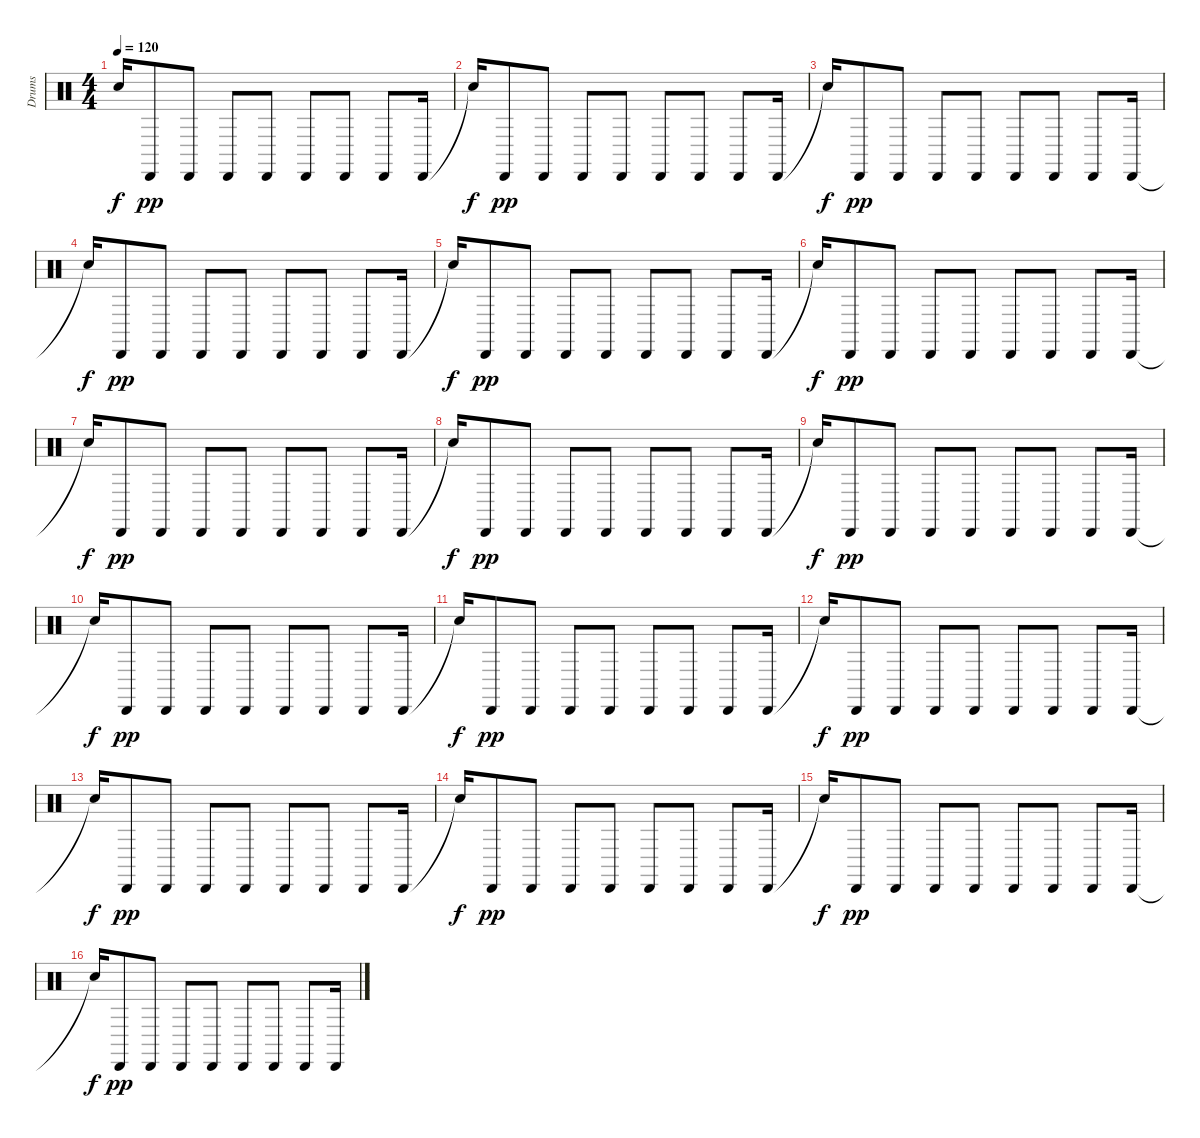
\track ("Drums" "Drums") {instrument percussion}
\staff {score}
\articulation defaults
\ts (4 4)
\tempo 120
\clef neutral
\ks c "Snare (hit)"{t}.16{dy f} "Cabasa (hit)".8{dy pp} "Cabasa (hit)".8 "Cabasa (hit)".8 "Cabasa (hit)".8 "Cabasa (hit)".8 "Cabasa (hit)".8 "Cabasa (hit)".8 "Cabasa (hit)".16
|
"Snare (hit)"{t}.16{dy f} "Cabasa (hit)".8{dy pp} "Cabasa (hit)".8 "Cabasa (hit)".8 "Cabasa (hit)".8 "Cabasa (hit)".8 "Cabasa (hit)".8 "Cabasa (hit)".8 "Cabasa (hit)".16 |
"Snare (hit)"{t}.16{dy f} "Cabasa (hit)".8{dy pp} "Cabasa (hit)".8 "Cabasa (hit)".8 "Cabasa (hit)".8 "Cabasa (hit)".8 "Cabasa (hit)".8 "Cabasa (hit)".8 "Cabasa (hit)".16 |
"Snare (hit)"{t}.16{dy f} "Cabasa (hit)".8{dy pp} "Cabasa (hit)".8 "Cabasa (hit)".8 "Cabasa (hit)".8 "Cabasa (hit)".8 "Cabasa (hit)".8 "Cabasa (hit)".8 "Cabasa (hit)".16 |
"Snare (hit)"{t}.16{dy f} "Cabasa (hit)".8{dy pp} "Cabasa (hit)".8 "Cabasa (hit)".8 "Cabasa (hit)".8 "Cabasa (hit)".8 "Cabasa (hit)".8 "Cabasa (hit)".8 "Cabasa (hit)".16 |
"Snare (hit)"{t}.16{dy f} "Cabasa (hit)".8{dy pp} "Cabasa (hit)".8 "Cabasa (hit)".8 "Cabasa (hit)".8 "Cabasa (hit)".8 "Cabasa (hit)".8 "Cabasa (hit)".8 "Cabasa (hit)".16 |
"Snare (hit)"{t}.16{dy f} "Cabasa (hit)".8{dy pp} "Cabasa (hit)".8 "Cabasa (hit)".8 "Cabasa (hit)".8 "Cabasa (hit)".8 "Cabasa (hit)".8 "Cabasa (hit)".8 "Cabasa (hit)".16 |
"Snare (hit)"{t}.16{dy f} "Cabasa (hit)".8{dy pp} "Cabasa (hit)".8 "Cabasa (hit)".8 "Cabasa (hit)".8 "Cabasa (hit)".8 "Cabasa (hit)".8 "Cabasa (hit)".8 "Cabasa (hit)".16 |
"Snare (hit)"{t}.16{dy f} "Cabasa (hit)".8{dy pp} "Cabasa (hit)".8 "Cabasa (hit)".8 "Cabasa (hit)".8 "Cabasa (hit)".8 "Cabasa (hit)".8 "Cabasa (hit)".8 "Cabasa (hit)".16 |
"Snare (hit)"{t}.16{dy f} "Cabasa (hit)".8{dy pp} "Cabasa (hit)".8 "Cabasa (hit)".8 "Cabasa (hit)".8 "Cabasa (hit)".8 "Cabasa (hit)".8 "Cabasa (hit)".8 "Cabasa (hit)".16 |
"Snare (hit)"{t}.16{dy f} "Cabasa (hit)".8{dy pp} "Cabasa (hit)".8 "Cabasa (hit)".8 "Cabasa (hit)".8 "Cabasa (hit)".8 "Cabasa (hit)".8 "Cabasa (hit)".8 "Cabasa (hit)".16 |
"Snare (hit)"{t}.16{dy f} "Cabasa (hit)".8{dy pp} "Cabasa (hit)".8 "Cabasa (hit)".8 "Cabasa (hit)".8 "Cabasa (hit)".8 "Cabasa (hit)".8 "Cabasa (hit)".8 "Cabasa (hit)".16 |
"Snare (hit)"{t}.16{dy f} "Cabasa (hit)".8{dy pp} "Cabasa (hit)".8 "Cabasa (hit)".8 "Cabasa (hit)".8 "Cabasa (hit)".8 "Cabasa (hit)".8 "Cabasa (hit)".8 "Cabasa (hit)".16 |
"Snare (hit)"{t}.16{dy f} "Cabasa (hit)".8{dy pp} "Cabasa (hit)".8 "Cabasa (hit)".8 "Cabasa (hit)".8 "Cabasa (hit)".8 "Cabasa (hit)".8 "Cabasa (hit)".8 "Cabasa (hit)".16 |
"Snare (hit)"{t}.16{dy f} "Cabasa (hit)".8{dy pp} "Cabasa (hit)".8 "Cabasa (hit)".8 "Cabasa (hit)".8 "Cabasa (hit)".8 "Cabasa (hit)".8 "Cabasa (hit)".8 "Cabasa (hit)".16 |
"Snare (hit)"{t}.16{dy f} "Cabasa (hit)".8{dy pp} "Cabasa (hit)".8 "Cabasa (hit)".8 "Cabasa (hit)".8 "Cabasa (hit)".8 "Cabasa (hit)".8 "Cabasa (hit)".8 "Cabasa (hit)".16
